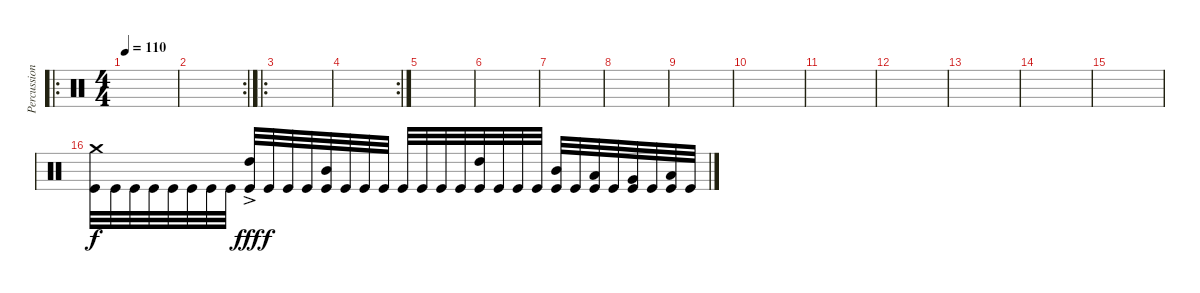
\track ("Percussion" "Percussion") {instrument percussion}
\staff {score}
\articulation defaults
\ro
\ts (4 4)
\tempo 110
\clef neutral
\ks c
|
\rc 2
|
\ro
|
\rc 2
|
|
|
|
|
|
|
|
|
|
|
|
("Crash medium (hit)" "Kick (hit)").32 "Kick (hit)".32 "Kick (hit)".32 "Kick (hit)".32 "Kick (hit)".32 "Kick (hit)".32 "Kick (hit)".32 "Kick (hit)".32 ("High Tom (hit)"{ac} "Kick (hit)").32{dy fff} "Kick (hit)".32{dy f} "Kick (hit)".32 "Kick (hit)".32 ("Mid Tom (hit)" "Kick (hit)").32 "Kick (hit)".32 "Kick (hit)".32 "Kick (hit)".32 "Kick (hit)".32 "Kick (hit)".32 "Kick (hit)".32 "Kick (hit)".32 ("High Tom (hit)" "Kick (hit)").32 "Kick (hit)".32 "Kick (hit)".32 "Kick (hit)".32 ("Mid Tom (hit)" "Kick (hit)").32 "Kick (hit)".32 ("Low Tom (hit)" "Kick (hit)").32 "Kick (hit)".32 ("Very Low Tom (hit)" "Kick (hit)").32 "Kick (hit)".32 ("Low Floor Tom (hit)" "Kick (hit)").32 "Kick (hit)".32
